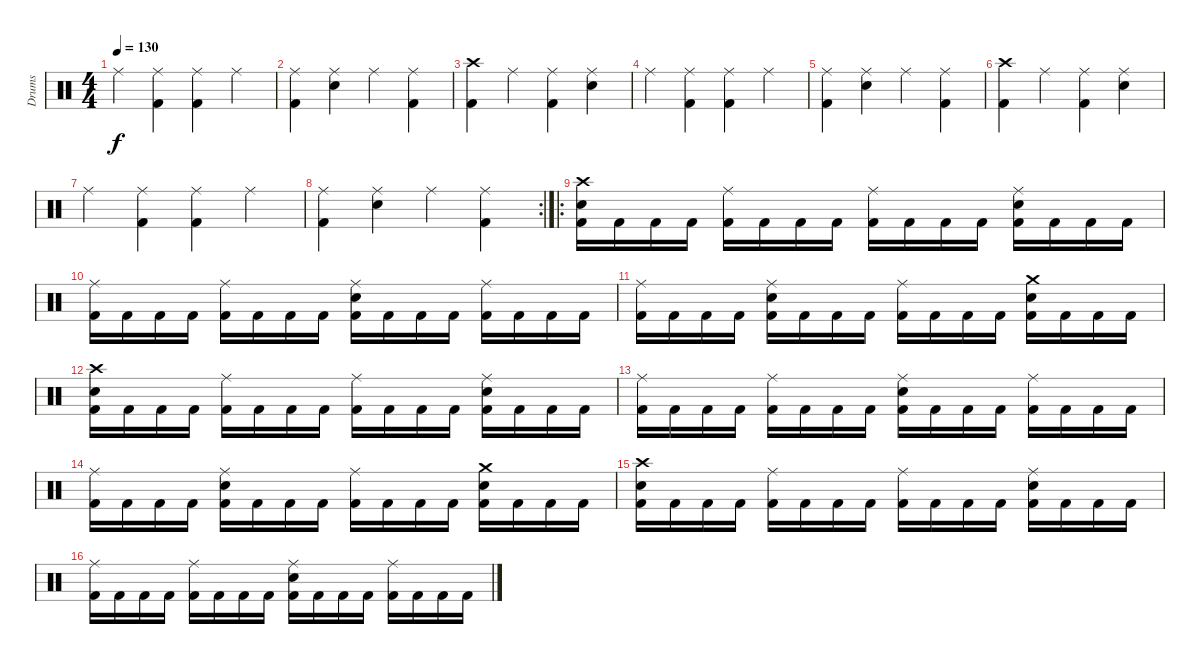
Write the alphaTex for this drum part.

\track ("Drums" "Drums") {instrument percussion}
\staff {score}
\articulation defaults
\ts (4 4)
\tempo 130
\clef neutral
\ks c "Ride (middle)".4{dy f}
("Ride (middle)" "Kick (hit) 2").4 ("Ride (middle)" "Kick (hit) 2").4 "Ride (middle)".4 |
("Ride (middle)" "Kick (hit) 2").4 ("Ride (middle)" "Electric Snare (hit)").4 "Ride (middle)".4 ("Ride (middle)" "Kick (hit) 2").4 |
("Crash high (hit)" "Kick (hit) 2").4 "Ride (middle)".4 ("Ride (middle)" "Kick (hit) 2").4 ("Ride (middle)" "Electric Snare (hit)").4 |
"Ride (middle)".4 ("Ride (middle)" "Kick (hit) 2").4 ("Ride (middle)" "Kick (hit) 2").4 "Ride (middle)".4 |
("Ride (middle)" "Kick (hit) 2").4 ("Ride (middle)" "Electric Snare (hit)").4 "Ride (middle)".4 ("Ride (middle)" "Kick (hit) 2").4 |
("Crash high (hit)" "Kick (hit) 2").4 "Ride (middle)".4 ("Ride (middle)" "Kick (hit) 2").4 ("Ride (middle)" "Electric Snare (hit)").4 |
"Ride (middle)".4 ("Ride (middle)" "Kick (hit) 2").4 ("Ride (middle)" "Kick (hit) 2").4 "Ride (middle)".4 |
\rc 2
("Ride (middle)" "Kick (hit) 2").4 ("Ride (middle)" "Electric Snare (hit)").4 "Ride (middle)".4 ("Ride (middle)" "Kick (hit) 2").4 |
\ro
("Crash high (hit)" "Electric Snare (hit)" "Kick (hit) 2").16 "Kick (hit) 2".16 "Kick (hit) 2".16 "Kick (hit) 2".16 ("Ride (middle)" "Kick (hit) 2").16 "Kick (hit) 2".16 "Kick (hit) 2".16 "Kick (hit) 2".16 ("Ride (middle)" "Kick (hit) 2").16 "Kick (hit) 2".16 "Kick (hit) 2".16 "Kick (hit) 2".16 ("Ride (middle)" "Electric Snare (hit)" "Kick (hit) 2").16 "Kick (hit) 2".16 "Kick (hit) 2".16 "Kick (hit) 2".16 |
("Ride (middle)" "Kick (hit) 2").16 "Kick (hit) 2".16 "Kick (hit) 2".16 "Kick (hit) 2".16 ("Ride (middle)" "Kick (hit) 2").16 "Kick (hit) 2".16 "Kick (hit) 2".16 "Kick (hit) 2".16 ("Ride (middle)" "Electric Snare (hit)" "Kick (hit) 2").16 "Kick (hit) 2".16 "Kick (hit) 2".16 "Kick (hit) 2".16 ("Ride (middle)" "Kick (hit) 2").16 "Kick (hit) 2".16 "Kick (hit) 2".16 "Kick (hit) 2".16 |
("Ride (middle)" "Kick (hit) 2").16 "Kick (hit) 2".16 "Kick (hit) 2".16 "Kick (hit) 2".16 ("Ride (middle)" "Electric Snare (hit)" "Kick (hit) 2").16 "Kick (hit) 2".16 "Kick (hit) 2".16 "Kick (hit) 2".16 ("Ride (middle)" "Kick (hit) 2").16 "Kick (hit) 2".16 "Kick (hit) 2".16 "Kick (hit) 2".16 ("Crash medium (hit)" "Electric Snare (hit)" "Kick (hit) 2").16 "Kick (hit) 2".16 "Kick (hit) 2".16 "Kick (hit) 2".16 |
("Crash high (hit)" "Electric Snare (hit)" "Kick (hit) 2").16 "Kick (hit) 2".16 "Kick (hit) 2".16 "Kick (hit) 2".16 ("Ride (middle)" "Kick (hit) 2").16 "Kick (hit) 2".16 "Kick (hit) 2".16 "Kick (hit) 2".16 ("Ride (middle)" "Kick (hit) 2").16 "Kick (hit) 2".16 "Kick (hit) 2".16 "Kick (hit) 2".16 ("Ride (middle)" "Electric Snare (hit)" "Kick (hit) 2").16 "Kick (hit) 2".16 "Kick (hit) 2".16 "Kick (hit) 2".16 |
("Ride (middle)" "Kick (hit) 2").16 "Kick (hit) 2".16 "Kick (hit) 2".16 "Kick (hit) 2".16 ("Ride (middle)" "Kick (hit) 2").16 "Kick (hit) 2".16 "Kick (hit) 2".16 "Kick (hit) 2".16 ("Ride (middle)" "Electric Snare (hit)" "Kick (hit) 2").16 "Kick (hit) 2".16 "Kick (hit) 2".16 "Kick (hit) 2".16 ("Ride (middle)" "Kick (hit) 2").16 "Kick (hit) 2".16 "Kick (hit) 2".16 "Kick (hit) 2".16 |
("Ride (middle)" "Kick (hit) 2").16 "Kick (hit) 2".16 "Kick (hit) 2".16 "Kick (hit) 2".16 ("Ride (middle)" "Electric Snare (hit)" "Kick (hit) 2").16 "Kick (hit) 2".16 "Kick (hit) 2".16 "Kick (hit) 2".16 ("Ride (middle)" "Kick (hit) 2").16 "Kick (hit) 2".16 "Kick (hit) 2".16 "Kick (hit) 2".16 ("Crash medium (hit)" "Electric Snare (hit)" "Kick (hit) 2").16 "Kick (hit) 2".16 "Kick (hit) 2".16 "Kick (hit) 2".16 |
("Crash high (hit)" "Electric Snare (hit)" "Kick (hit) 2").16 "Kick (hit) 2".16 "Kick (hit) 2".16 "Kick (hit) 2".16 ("Ride (middle)" "Kick (hit) 2").16 "Kick (hit) 2".16 "Kick (hit) 2".16 "Kick (hit) 2".16 ("Ride (middle)" "Kick (hit) 2").16 "Kick (hit) 2".16 "Kick (hit) 2".16 "Kick (hit) 2".16 ("Ride (middle)" "Electric Snare (hit)" "Kick (hit) 2").16 "Kick (hit) 2".16 "Kick (hit) 2".16 "Kick (hit) 2".16 |
("Ride (middle)" "Kick (hit) 2").16 "Kick (hit) 2".16 "Kick (hit) 2".16 "Kick (hit) 2".16 ("Ride (middle)" "Kick (hit) 2").16 "Kick (hit) 2".16 "Kick (hit) 2".16 "Kick (hit) 2".16 ("Ride (middle)" "Electric Snare (hit)" "Kick (hit) 2").16 "Kick (hit) 2".16 "Kick (hit) 2".16 "Kick (hit) 2".16 ("Ride (middle)" "Kick (hit) 2").16 "Kick (hit) 2".16 "Kick (hit) 2".16 "Kick (hit) 2".16
